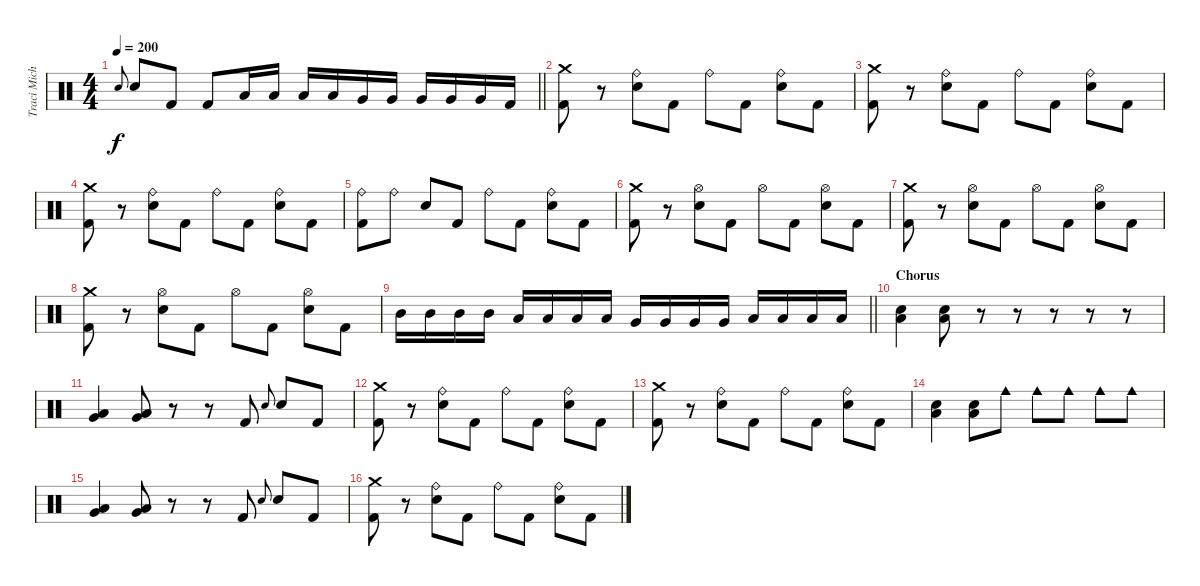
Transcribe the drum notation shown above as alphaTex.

\track ("Traci Michaelz" "Traci Mich") {instrument percussion}
\staff {score}
\articulation defaults
\ts (4 4)
\tempo 200
\clef neutral
\barLineRight lightlight
\ks c "Snare (hit) 2".8{gr onbeat dy f} "Snare (hit) 2".8 "Kick (hit) 2".8 "Kick (hit) 2".8 "Low Tom (hit)".16 "Low Tom (hit)".16 "Low Tom (hit)".16 "Low Tom (hit)".16 "Very Low Tom (hit)".16 "Very Low Tom (hit)".16 "Very Low Tom (hit)".16 "Very Low Tom (hit)".16 "Very Low Tom (hit)".16 "Kick (hit) 2".16
|
("Crash medium (hit)" "Kick (hit) 2").8 r.8 ("Ride (bell)" "Snare (hit) 2").8 "Kick (hit) 2".8 "Ride (bell)".8 "Kick (hit) 2".8 ("Ride (bell)" "Snare (hit) 2").8 "Kick (hit) 2".8 |
("Crash medium (hit)" "Kick (hit) 2").8 r.8 ("Ride (bell)" "Snare (hit) 2").8 "Kick (hit) 2".8 "Ride (bell)".8 "Kick (hit) 2".8 ("Ride (bell)" "Snare (hit) 2").8 "Kick (hit) 2".8 |
("Crash medium (hit)" "Kick (hit) 2").8 r.8 ("Ride (bell)" "Snare (hit) 2").8 "Kick (hit) 2".8 "Ride (bell)".8 "Kick (hit) 2".8 ("Ride (bell)" "Snare (hit) 2").8 "Kick (hit) 2".8 |
("Ride (bell)" "Kick (hit) 2").8 "Ride (bell)".8 "Snare (hit) 2".8 "Kick (hit) 2".8 "Ride (bell)".8 "Kick (hit) 2".8 ("Ride (bell)" "Snare (hit) 2").8 "Kick (hit) 2".8 |
("Crash medium (hit)" "Kick (hit) 2").8 r.8 ("Hi-Hat (open)" "Snare (hit) 2").8 "Kick (hit) 2".8 "Hi-Hat (open)".8 "Kick (hit) 2".8 ("Hi-Hat (open)" "Snare (hit) 2").8 "Kick (hit) 2".8 |
("Crash medium (hit)" "Kick (hit) 2").8 r.8 ("Hi-Hat (open)" "Snare (hit) 2").8 "Kick (hit) 2".8 "Hi-Hat (open)".8 "Kick (hit) 2".8 ("Hi-Hat (open)" "Snare (hit) 2").8 "Kick (hit) 2".8 |
("Crash medium (hit)" "Kick (hit) 2").8 r.8 ("Hi-Hat (open)" "Snare (hit) 2").8 "Kick (hit) 2".8 "Hi-Hat (open)".8 "Kick (hit) 2".8 ("Hi-Hat (open)" "Snare (hit) 2").8 "Kick (hit) 2".8 |
\barLineRight lightlight "Mid Tom (hit)".16 "Mid Tom (hit)".16 "Mid Tom (hit)".16 "Mid Tom (hit)".16 "Low Tom (hit)".16 "Low Tom (hit)".16 "Low Tom (hit)".16 "Low Tom (hit)".16 "Very Low Tom (hit)".16 "Very Low Tom (hit)".16 "Very Low Tom (hit)".16 "Very Low Tom (hit)".16 "Low Floor Tom (hit)".16 "Low Floor Tom (hit)".16 "Low Floor Tom (hit)".16 "Low Floor Tom (hit)".16
|
\section ("" "Chorus")
("Snare (hit) 2" "Low Floor Tom (hit)").4 ("Snare (hit) 2" "Low Floor Tom (hit)").8 r.8 r.8 r.8 r.8 r.8 |
("Very Low Tom (hit)" "Low Floor Tom (hit)").4 ("Very Low Tom (hit)" "Low Floor Tom (hit)").8 r.8 r.8 "Kick (hit) 2".8 "Snare (hit) 2".8{gr onbeat} "Snare (hit) 2".8 "Kick (hit) 2".8 |
("Crash medium (hit)" "Kick (hit) 2").8 r.8 ("Ride (bell)" "Snare (hit) 2").8 "Kick (hit) 2".8 "Ride (bell)".8 "Kick (hit) 2".8 ("Ride (bell)" "Snare (hit) 2").8 "Kick (hit) 2".8 |
("Crash medium (hit)" "Kick (hit) 2").8 r.8 ("Ride (bell)" "Snare (hit) 2").8 "Kick (hit) 2".8 "Ride (bell)".8 "Kick (hit) 2".8 ("Ride (bell)" "Snare (hit) 2").8 "Kick (hit) 2".8 |
("Snare (hit) 2" "Low Floor Tom (hit)").4 ("Snare (hit) 2" "Low Floor Tom (hit)").8 "Cowbell medium (hit)".8 "Cowbell medium (hit)".8 "Cowbell medium (hit)".8 "Cowbell medium (hit)".8 "Cowbell medium (hit)".8 |
("Very Low Tom (hit)" "Low Floor Tom (hit)").4 ("Very Low Tom (hit)" "Low Floor Tom (hit)").8 r.8 r.8 "Kick (hit) 2".8 "Snare (hit) 2".8{gr onbeat} "Snare (hit) 2".8 "Kick (hit) 2".8 |
("Crash medium (hit)" "Kick (hit) 2").8 r.8 ("Ride (bell)" "Snare (hit) 2").8 "Kick (hit) 2".8 "Ride (bell)".8 "Kick (hit) 2".8 ("Ride (bell)" "Snare (hit) 2").8 "Kick (hit) 2".8
